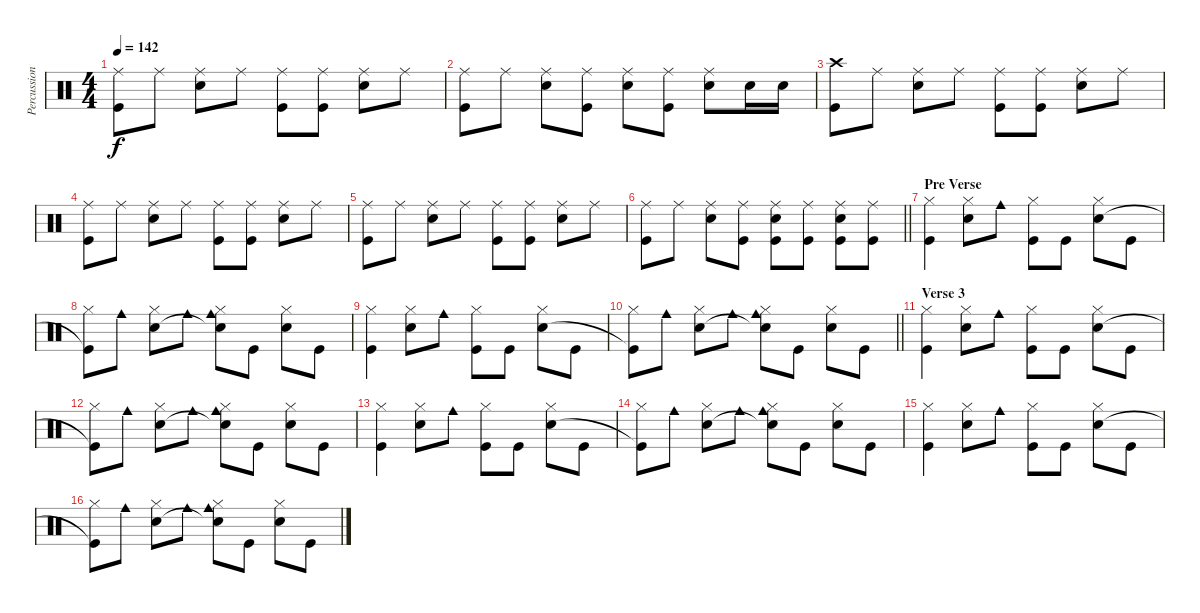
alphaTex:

\track ("Percussion" "Percussion") {instrument percussion}
\staff {score}
\articulation defaults
\ts (4 4)
\tempo 142
\clef neutral
\ks c
("Ride (middle)" "Kick (hit)").8{dy f} "Ride (middle)".8 ("Ride (middle)" "Snare (hit) 2").8 "Ride (middle)".8 ("Ride (middle)" "Kick (hit)").8 ("Ride (middle)" "Kick (hit)").8 ("Ride (middle)" "Snare (hit) 2").8 "Ride (middle)".8 |
("Ride (middle)" "Kick (hit)").8 "Ride (middle)".8 ("Ride (middle)" "Snare (hit) 2").8 ("Ride (middle)" "Kick (hit)").8 ("Ride (middle)" "Snare (hit) 2").8 ("Ride (middle)" "Kick (hit)").8 ("Ride (middle)" "Snare (hit) 2").8 "Snare (hit) 2".16 "Snare (hit) 2".16 |
("Crash high (hit)" "Kick (hit)").8 "Ride (middle)".8 ("Ride (middle)" "Snare (hit) 2").8 "Ride (middle)".8 ("Ride (middle)" "Kick (hit)").8 ("Ride (middle)" "Kick (hit)").8 ("Ride (middle)" "Snare (hit) 2").8 "Ride (middle)".8 |
("Ride (middle)" "Kick (hit)").8 "Ride (middle)".8 ("Ride (middle)" "Snare (hit) 2").8 "Ride (middle)".8 ("Ride (middle)" "Kick (hit)").8 ("Ride (middle)" "Kick (hit)").8 ("Ride (middle)" "Snare (hit) 2").8 "Ride (middle)".8 |
("Ride (middle)" "Kick (hit)").8 "Ride (middle)".8 ("Ride (middle)" "Snare (hit) 2").8 "Ride (middle)".8 ("Ride (middle)" "Kick (hit)").8 ("Ride (middle)" "Kick (hit)").8 ("Ride (middle)" "Snare (hit) 2").8 "Ride (middle)".8 |
\barLineRight lightlight
("Ride (middle)" "Kick (hit)").8 "Ride (middle)".8 ("Ride (middle)" "Snare (hit) 2").8 ("Ride (middle)" "Kick (hit)").8 ("Ride (middle)" "Snare (hit) 2" "Kick (hit)").8 ("Ride (middle)" "Kick (hit)").8 ("Ride (middle)" "Snare (hit) 2" "Kick (hit)").8 ("Ride (middle)" "Kick (hit)").8 |
\section ("" "Pre Verse")
("Kick (hit)" "Hi-Hat (closed)").4 ("Snare (hit) 2" "Hi-Hat (closed)").8 "Cowbell medium (hit)".8 ("Hi-Hat (closed)" "Kick (hit)").8 "Kick (hit)".8 ("Hi-Hat (closed)" "Snare (hit) 2").8 "Kick (hit)".8 |
("Hi-Hat (closed)" "Kick (hit)"{t}).8 "Cowbell medium (hit)".8 ("Hi-Hat (closed)" "Snare (hit) 2").8 "Cowbell medium (hit)".8 ("Hi-Hat (closed)" "Snare (hit) 2"{t} "Cowbell medium (hit)").8 "Kick (hit)".8 ("Hi-Hat (closed)" "Snare (hit) 2").8 "Kick (hit)".8 |
("Kick (hit)" "Hi-Hat (closed)").4 ("Snare (hit) 2" "Hi-Hat (closed)").8 "Cowbell medium (hit)".8 ("Hi-Hat (closed)" "Kick (hit)").8 "Kick (hit)".8 ("Hi-Hat (closed)" "Snare (hit) 2").8 "Kick (hit)".8 |
\barLineRight lightlight
("Hi-Hat (closed)" "Kick (hit)"{t}).8 "Cowbell medium (hit)".8 ("Hi-Hat (closed)" "Snare (hit) 2").8 "Cowbell medium (hit)".8 ("Hi-Hat (closed)" "Snare (hit) 2"{t} "Cowbell medium (hit)").8 "Kick (hit)".8 ("Hi-Hat (closed)" "Snare (hit) 2").8 "Kick (hit)".8 |
\section ("" "Verse 3")
("Kick (hit)" "Hi-Hat (closed)").4 ("Snare (hit) 2" "Hi-Hat (closed)").8 "Cowbell medium (hit)".8 ("Hi-Hat (closed)" "Kick (hit)").8 "Kick (hit)".8 ("Hi-Hat (closed)" "Snare (hit) 2").8 "Kick (hit)".8 |
("Hi-Hat (closed)" "Kick (hit)"{t}).8 "Cowbell medium (hit)".8 ("Hi-Hat (closed)" "Snare (hit) 2").8 "Cowbell medium (hit)".8 ("Hi-Hat (closed)" "Snare (hit) 2"{t} "Cowbell medium (hit)").8 "Kick (hit)".8 ("Hi-Hat (closed)" "Snare (hit) 2").8 "Kick (hit)".8 |
("Kick (hit)" "Hi-Hat (closed)").4 ("Snare (hit) 2" "Hi-Hat (closed)").8 "Cowbell medium (hit)".8 ("Hi-Hat (closed)" "Kick (hit)").8 "Kick (hit)".8 ("Hi-Hat (closed)" "Snare (hit) 2").8 "Kick (hit)".8 |
("Hi-Hat (closed)" "Kick (hit)"{t}).8 "Cowbell medium (hit)".8 ("Hi-Hat (closed)" "Snare (hit) 2").8 "Cowbell medium (hit)".8 ("Hi-Hat (closed)" "Snare (hit) 2"{t} "Cowbell medium (hit)").8 "Kick (hit)".8 ("Hi-Hat (closed)" "Snare (hit) 2").8 "Kick (hit)".8 |
("Kick (hit)" "Hi-Hat (closed)").4 ("Snare (hit) 2" "Hi-Hat (closed)").8 "Cowbell medium (hit)".8 ("Hi-Hat (closed)" "Kick (hit)").8 "Kick (hit)".8 ("Hi-Hat (closed)" "Snare (hit) 2").8 "Kick (hit)".8 |
("Hi-Hat (closed)" "Kick (hit)"{t}).8 "Cowbell medium (hit)".8 ("Hi-Hat (closed)" "Snare (hit) 2").8 "Cowbell medium (hit)".8 ("Hi-Hat (closed)" "Snare (hit) 2"{t} "Cowbell medium (hit)").8 "Kick (hit)".8 ("Hi-Hat (closed)" "Snare (hit) 2").8 "Kick (hit)".8
